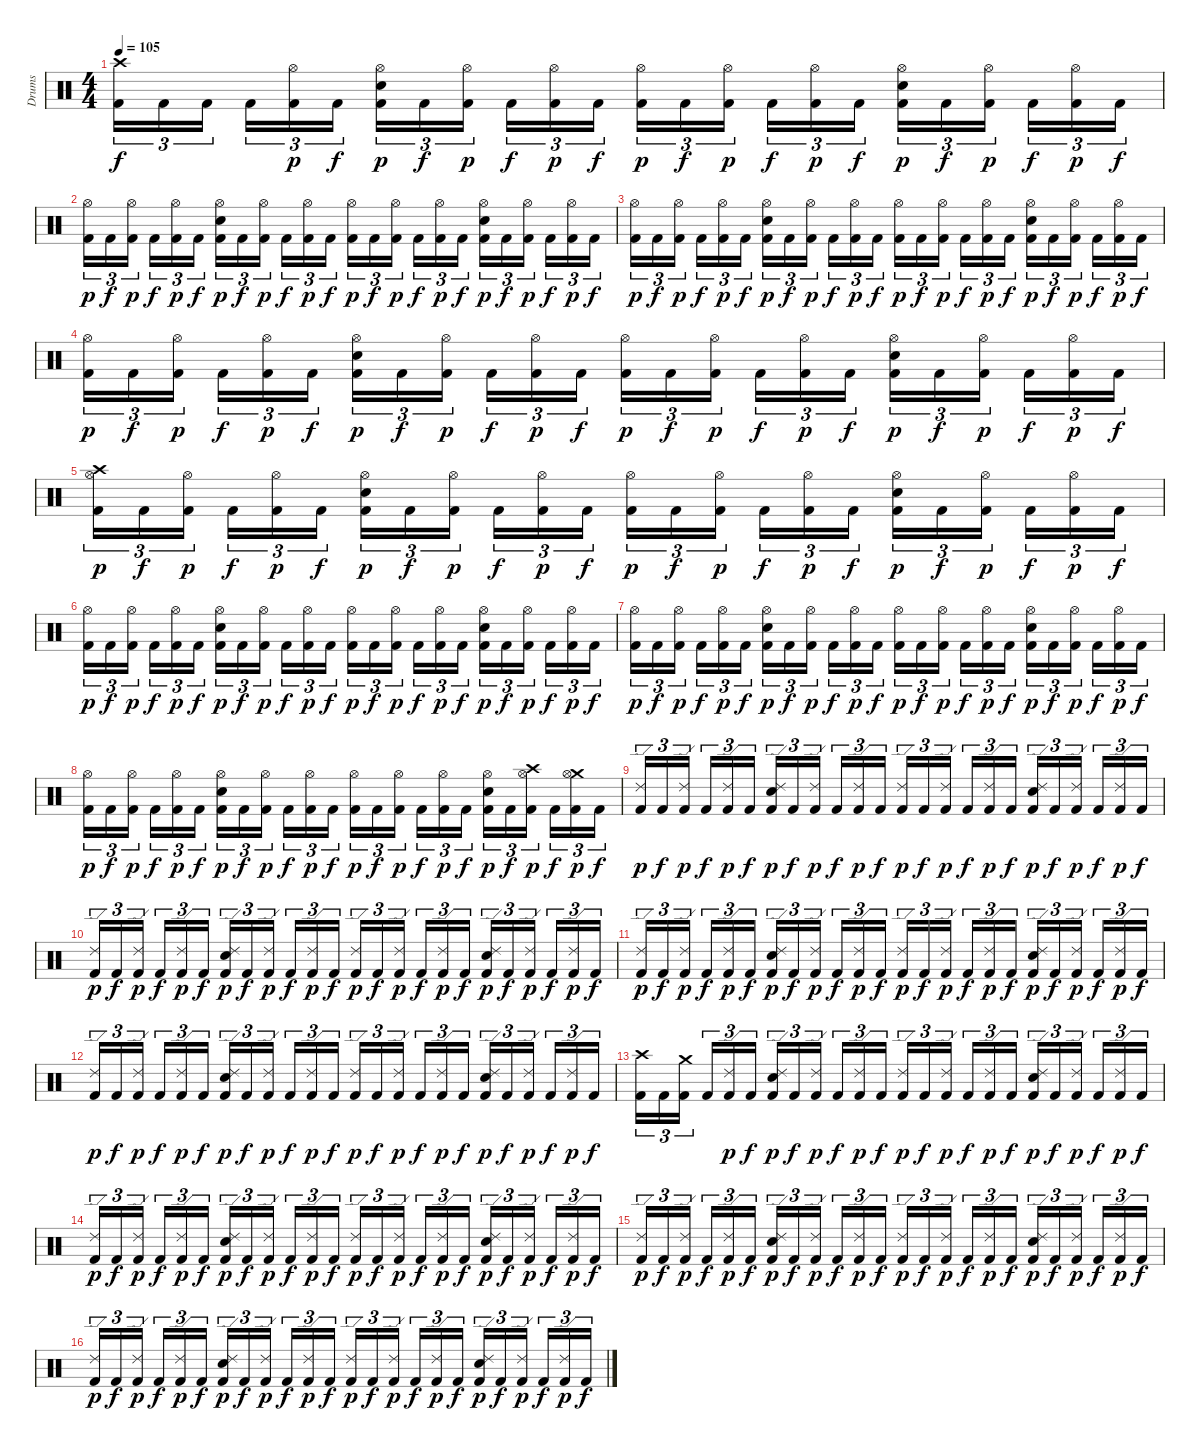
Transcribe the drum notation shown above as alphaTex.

\track ("Drums" "Drums") {instrument percussion}
\staff {score}
\articulation defaults
\ts (4 4)
\tempo 105
\clef neutral
\ks c
("Crash high (hit)" "Kick (hit) 2").16{tu (3 2) dy f} "Kick (hit) 2".16{tu (3 2)} "Kick (hit) 2".16{tu (3 2)} "Kick (hit) 2".16{tu (3 2)} ("Hi-Hat (open)" "Kick (hit) 2").16{tu (3 2) dy p} "Kick (hit) 2".16{tu (3 2) dy f} ("Hi-Hat (open)" "Electric Snare (hit)" "Kick (hit) 2").16{tu (3 2) dy p} "Kick (hit) 2".16{tu (3 2) dy f} ("Hi-Hat (open)" "Kick (hit) 2").16{tu (3 2) dy p} "Kick (hit) 2".16{tu (3 2) dy f} ("Hi-Hat (open)" "Kick (hit) 2").16{tu (3 2) dy p} "Kick (hit) 2".16{tu (3 2) dy f} ("Hi-Hat (open)" "Kick (hit) 2").16{tu (3 2) dy p} "Kick (hit) 2".16{tu (3 2) dy f} ("Hi-Hat (open)" "Kick (hit) 2").16{tu (3 2) dy p} "Kick (hit) 2".16{tu (3 2) dy f} ("Hi-Hat (open)" "Kick (hit) 2").16{tu (3 2) dy p} "Kick (hit) 2".16{tu (3 2) dy f} ("Hi-Hat (open)" "Electric Snare (hit)" "Kick (hit) 2").16{tu (3 2) dy p} "Kick (hit) 2".16{tu (3 2) dy f} ("Hi-Hat (open)" "Kick (hit) 2").16{tu (3 2) dy p} "Kick (hit) 2".16{tu (3 2) dy f} ("Hi-Hat (open)" "Kick (hit) 2").16{tu (3 2) dy p} "Kick (hit) 2".16{tu (3 2) dy f} |
("Hi-Hat (open)" "Kick (hit) 2").16{tu (3 2) dy p} "Kick (hit) 2".16{tu (3 2) dy f} ("Hi-Hat (open)" "Kick (hit) 2").16{tu (3 2) dy p} "Kick (hit) 2".16{tu (3 2) dy f} ("Hi-Hat (open)" "Kick (hit) 2").16{tu (3 2) dy p} "Kick (hit) 2".16{tu (3 2) dy f} ("Hi-Hat (open)" "Electric Snare (hit)" "Kick (hit) 2").16{tu (3 2) dy p} "Kick (hit) 2".16{tu (3 2) dy f} ("Hi-Hat (open)" "Kick (hit) 2").16{tu (3 2) dy p} "Kick (hit) 2".16{tu (3 2) dy f} ("Hi-Hat (open)" "Kick (hit) 2").16{tu (3 2) dy p} "Kick (hit) 2".16{tu (3 2) dy f} ("Hi-Hat (open)" "Kick (hit) 2").16{tu (3 2) dy p} "Kick (hit) 2".16{tu (3 2) dy f} ("Hi-Hat (open)" "Kick (hit) 2").16{tu (3 2) dy p} "Kick (hit) 2".16{tu (3 2) dy f} ("Hi-Hat (open)" "Kick (hit) 2").16{tu (3 2) dy p} "Kick (hit) 2".16{tu (3 2) dy f} ("Hi-Hat (open)" "Electric Snare (hit)" "Kick (hit) 2").16{tu (3 2) dy p} "Kick (hit) 2".16{tu (3 2) dy f} ("Hi-Hat (open)" "Kick (hit) 2").16{tu (3 2) dy p} "Kick (hit) 2".16{tu (3 2) dy f} ("Hi-Hat (open)" "Kick (hit) 2").16{tu (3 2) dy p} "Kick (hit) 2".16{tu (3 2) dy f} |
("Hi-Hat (open)" "Kick (hit) 2").16{tu (3 2) dy p} "Kick (hit) 2".16{tu (3 2) dy f} ("Hi-Hat (open)" "Kick (hit) 2").16{tu (3 2) dy p} "Kick (hit) 2".16{tu (3 2) dy f} ("Hi-Hat (open)" "Kick (hit) 2").16{tu (3 2) dy p} "Kick (hit) 2".16{tu (3 2) dy f} ("Hi-Hat (open)" "Electric Snare (hit)" "Kick (hit) 2").16{tu (3 2) dy p} "Kick (hit) 2".16{tu (3 2) dy f} ("Hi-Hat (open)" "Kick (hit) 2").16{tu (3 2) dy p} "Kick (hit) 2".16{tu (3 2) dy f} ("Hi-Hat (open)" "Kick (hit) 2").16{tu (3 2) dy p} "Kick (hit) 2".16{tu (3 2) dy f} ("Hi-Hat (open)" "Kick (hit) 2").16{tu (3 2) dy p} "Kick (hit) 2".16{tu (3 2) dy f} ("Hi-Hat (open)" "Kick (hit) 2").16{tu (3 2) dy p} "Kick (hit) 2".16{tu (3 2) dy f} ("Hi-Hat (open)" "Kick (hit) 2").16{tu (3 2) dy p} "Kick (hit) 2".16{tu (3 2) dy f} ("Hi-Hat (open)" "Electric Snare (hit)" "Kick (hit) 2").16{tu (3 2) dy p} "Kick (hit) 2".16{tu (3 2) dy f} ("Hi-Hat (open)" "Kick (hit) 2").16{tu (3 2) dy p} "Kick (hit) 2".16{tu (3 2) dy f} ("Hi-Hat (open)" "Kick (hit) 2").16{tu (3 2) dy p} "Kick (hit) 2".16{tu (3 2) dy f} |
("Hi-Hat (open)" "Kick (hit) 2").16{tu (3 2) dy p} "Kick (hit) 2".16{tu (3 2) dy f} ("Hi-Hat (open)" "Kick (hit) 2").16{tu (3 2) dy p} "Kick (hit) 2".16{tu (3 2) dy f} ("Hi-Hat (open)" "Kick (hit) 2").16{tu (3 2) dy p} "Kick (hit) 2".16{tu (3 2) dy f} ("Hi-Hat (open)" "Electric Snare (hit)" "Kick (hit) 2").16{tu (3 2) dy p} "Kick (hit) 2".16{tu (3 2) dy f} ("Hi-Hat (open)" "Kick (hit) 2").16{tu (3 2) dy p} "Kick (hit) 2".16{tu (3 2) dy f} ("Hi-Hat (open)" "Kick (hit) 2").16{tu (3 2) dy p} "Kick (hit) 2".16{tu (3 2) dy f} ("Hi-Hat (open)" "Kick (hit) 2").16{tu (3 2) dy p} "Kick (hit) 2".16{tu (3 2) dy f} ("Hi-Hat (open)" "Kick (hit) 2").16{tu (3 2) dy p} "Kick (hit) 2".16{tu (3 2) dy f} ("Hi-Hat (open)" "Kick (hit) 2").16{tu (3 2) dy p} "Kick (hit) 2".16{tu (3 2) dy f} ("Hi-Hat (open)" "Electric Snare (hit)" "Kick (hit) 2").16{tu (3 2) dy p} "Kick (hit) 2".16{tu (3 2) dy f} ("Hi-Hat (open)" "Kick (hit) 2").16{tu (3 2) dy p} "Kick (hit) 2".16{tu (3 2) dy f} ("Hi-Hat (open)" "Kick (hit) 2").16{tu (3 2) dy p} "Kick (hit) 2".16{tu (3 2) dy f} |
("Crash high (hit)" "Hi-Hat (open)" "Kick (hit) 2").16{tu (3 2) dy p} "Kick (hit) 2".16{tu (3 2) dy f} ("Hi-Hat (open)" "Kick (hit) 2").16{tu (3 2) dy p} "Kick (hit) 2".16{tu (3 2) dy f} ("Hi-Hat (open)" "Kick (hit) 2").16{tu (3 2) dy p} "Kick (hit) 2".16{tu (3 2) dy f} ("Hi-Hat (open)" "Electric Snare (hit)" "Kick (hit) 2").16{tu (3 2) dy p} "Kick (hit) 2".16{tu (3 2) dy f} ("Hi-Hat (open)" "Kick (hit) 2").16{tu (3 2) dy p} "Kick (hit) 2".16{tu (3 2) dy f} ("Hi-Hat (open)" "Kick (hit) 2").16{tu (3 2) dy p} "Kick (hit) 2".16{tu (3 2) dy f} ("Hi-Hat (open)" "Kick (hit) 2").16{tu (3 2) dy p} "Kick (hit) 2".16{tu (3 2) dy f} ("Hi-Hat (open)" "Kick (hit) 2").16{tu (3 2) dy p} "Kick (hit) 2".16{tu (3 2) dy f} ("Hi-Hat (open)" "Kick (hit) 2").16{tu (3 2) dy p} "Kick (hit) 2".16{tu (3 2) dy f} ("Hi-Hat (open)" "Electric Snare (hit)" "Kick (hit) 2").16{tu (3 2) dy p} "Kick (hit) 2".16{tu (3 2) dy f} ("Hi-Hat (open)" "Kick (hit) 2").16{tu (3 2) dy p} "Kick (hit) 2".16{tu (3 2) dy f} ("Hi-Hat (open)" "Kick (hit) 2").16{tu (3 2) dy p} "Kick (hit) 2".16{tu (3 2) dy f} |
("Hi-Hat (open)" "Kick (hit) 2").16{tu (3 2) dy p} "Kick (hit) 2".16{tu (3 2) dy f} ("Hi-Hat (open)" "Kick (hit) 2").16{tu (3 2) dy p} "Kick (hit) 2".16{tu (3 2) dy f} ("Hi-Hat (open)" "Kick (hit) 2").16{tu (3 2) dy p} "Kick (hit) 2".16{tu (3 2) dy f} ("Hi-Hat (open)" "Electric Snare (hit)" "Kick (hit) 2").16{tu (3 2) dy p} "Kick (hit) 2".16{tu (3 2) dy f} ("Hi-Hat (open)" "Kick (hit) 2").16{tu (3 2) dy p} "Kick (hit) 2".16{tu (3 2) dy f} ("Hi-Hat (open)" "Kick (hit) 2").16{tu (3 2) dy p} "Kick (hit) 2".16{tu (3 2) dy f} ("Hi-Hat (open)" "Kick (hit) 2").16{tu (3 2) dy p} "Kick (hit) 2".16{tu (3 2) dy f} ("Hi-Hat (open)" "Kick (hit) 2").16{tu (3 2) dy p} "Kick (hit) 2".16{tu (3 2) dy f} ("Hi-Hat (open)" "Kick (hit) 2").16{tu (3 2) dy p} "Kick (hit) 2".16{tu (3 2) dy f} ("Hi-Hat (open)" "Electric Snare (hit)" "Kick (hit) 2").16{tu (3 2) dy p} "Kick (hit) 2".16{tu (3 2) dy f} ("Hi-Hat (open)" "Kick (hit) 2").16{tu (3 2) dy p} "Kick (hit) 2".16{tu (3 2) dy f} ("Hi-Hat (open)" "Kick (hit) 2").16{tu (3 2) dy p} "Kick (hit) 2".16{tu (3 2) dy f} |
("Hi-Hat (open)" "Kick (hit) 2").16{tu (3 2) dy p} "Kick (hit) 2".16{tu (3 2) dy f} ("Hi-Hat (open)" "Kick (hit) 2").16{tu (3 2) dy p} "Kick (hit) 2".16{tu (3 2) dy f} ("Hi-Hat (open)" "Kick (hit) 2").16{tu (3 2) dy p} "Kick (hit) 2".16{tu (3 2) dy f} ("Hi-Hat (open)" "Electric Snare (hit)" "Kick (hit) 2").16{tu (3 2) dy p} "Kick (hit) 2".16{tu (3 2) dy f} ("Hi-Hat (open)" "Kick (hit) 2").16{tu (3 2) dy p} "Kick (hit) 2".16{tu (3 2) dy f} ("Hi-Hat (open)" "Kick (hit) 2").16{tu (3 2) dy p} "Kick (hit) 2".16{tu (3 2) dy f} ("Hi-Hat (open)" "Kick (hit) 2").16{tu (3 2) dy p} "Kick (hit) 2".16{tu (3 2) dy f} ("Hi-Hat (open)" "Kick (hit) 2").16{tu (3 2) dy p} "Kick (hit) 2".16{tu (3 2) dy f} ("Hi-Hat (open)" "Kick (hit) 2").16{tu (3 2) dy p} "Kick (hit) 2".16{tu (3 2) dy f} ("Hi-Hat (open)" "Electric Snare (hit)" "Kick (hit) 2").16{tu (3 2) dy p} "Kick (hit) 2".16{tu (3 2) dy f} ("Hi-Hat (open)" "Kick (hit) 2").16{tu (3 2) dy p} "Kick (hit) 2".16{tu (3 2) dy f} ("Hi-Hat (open)" "Kick (hit) 2").16{tu (3 2) dy p} "Kick (hit) 2".16{tu (3 2) dy f} |
("Hi-Hat (open)" "Kick (hit) 2").16{tu (3 2) dy p} "Kick (hit) 2".16{tu (3 2) dy f} ("Hi-Hat (open)" "Kick (hit) 2").16{tu (3 2) dy p} "Kick (hit) 2".16{tu (3 2) dy f} ("Hi-Hat (open)" "Kick (hit) 2").16{tu (3 2) dy p} "Kick (hit) 2".16{tu (3 2) dy f} ("Hi-Hat (open)" "Electric Snare (hit)" "Kick (hit) 2").16{tu (3 2) dy p} "Kick (hit) 2".16{tu (3 2) dy f} ("Hi-Hat (open)" "Kick (hit) 2").16{tu (3 2) dy p} "Kick (hit) 2".16{tu (3 2) dy f} ("Hi-Hat (open)" "Kick (hit) 2").16{tu (3 2) dy p} "Kick (hit) 2".16{tu (3 2) dy f} ("Hi-Hat (open)" "Kick (hit) 2").16{tu (3 2) dy p} "Kick (hit) 2".16{tu (3 2) dy f} ("Hi-Hat (open)" "Kick (hit) 2").16{tu (3 2) dy p} "Kick (hit) 2".16{tu (3 2) dy f} ("Hi-Hat (open)" "Kick (hit) 2").16{tu (3 2) dy p} "Kick (hit) 2".16{tu (3 2) dy f} ("Hi-Hat (open)" "Electric Snare (hit)" "Kick (hit) 2").16{tu (3 2) dy p} "Kick (hit) 2".16{tu (3 2) dy f} ("Crash high (hit)" "Hi-Hat (open)" "Kick (hit) 2").16{tu (3 2) dy p} "Kick (hit) 2".16{tu (3 2) dy f} ("Crash medium (hit)" "Hi-Hat (open)" "Kick (hit) 2").16{tu (3 2) dy p} "Kick (hit) 2".16{tu (3 2) dy f} |
("Ride (edge) 2" "Kick (hit) 2").16{tu (3 2) dy p} "Kick (hit) 2".16{tu (3 2) dy f} ("Ride (edge) 2" "Kick (hit) 2").16{tu (3 2) dy p} "Kick (hit) 2".16{tu (3 2) dy f} ("Ride (edge) 2" "Kick (hit) 2").16{tu (3 2) dy p} "Kick (hit) 2".16{tu (3 2) dy f} ("Ride (edge) 2" "Electric Snare (hit)" "Kick (hit) 2").16{tu (3 2) dy p} "Kick (hit) 2".16{tu (3 2) dy f} ("Ride (edge) 2" "Kick (hit) 2").16{tu (3 2) dy p} "Kick (hit) 2".16{tu (3 2) dy f} ("Ride (edge) 2" "Kick (hit) 2").16{tu (3 2) dy p} "Kick (hit) 2".16{tu (3 2) dy f} ("Ride (edge) 2" "Kick (hit) 2").16{tu (3 2) dy p} "Kick (hit) 2".16{tu (3 2) dy f} ("Ride (edge) 2" "Kick (hit) 2").16{tu (3 2) dy p} "Kick (hit) 2".16{tu (3 2) dy f} ("Ride (edge) 2" "Kick (hit) 2").16{tu (3 2) dy p} "Kick (hit) 2".16{tu (3 2) dy f} ("Ride (edge) 2" "Electric Snare (hit)" "Kick (hit) 2").16{tu (3 2) dy p} "Kick (hit) 2".16{tu (3 2) dy f} ("Ride (edge) 2" "Kick (hit) 2").16{tu (3 2) dy p} "Kick (hit) 2".16{tu (3 2) dy f} ("Ride (edge) 2" "Kick (hit) 2").16{tu (3 2) dy p} "Kick (hit) 2".16{tu (3 2) dy f} |
("Ride (edge) 2" "Kick (hit) 2").16{tu (3 2) dy p} "Kick (hit) 2".16{tu (3 2) dy f} ("Ride (edge) 2" "Kick (hit) 2").16{tu (3 2) dy p} "Kick (hit) 2".16{tu (3 2) dy f} ("Ride (edge) 2" "Kick (hit) 2").16{tu (3 2) dy p} "Kick (hit) 2".16{tu (3 2) dy f} ("Ride (edge) 2" "Electric Snare (hit)" "Kick (hit) 2").16{tu (3 2) dy p} "Kick (hit) 2".16{tu (3 2) dy f} ("Ride (edge) 2" "Kick (hit) 2").16{tu (3 2) dy p} "Kick (hit) 2".16{tu (3 2) dy f} ("Ride (edge) 2" "Kick (hit) 2").16{tu (3 2) dy p} "Kick (hit) 2".16{tu (3 2) dy f} ("Ride (edge) 2" "Kick (hit) 2").16{tu (3 2) dy p} "Kick (hit) 2".16{tu (3 2) dy f} ("Ride (edge) 2" "Kick (hit) 2").16{tu (3 2) dy p} "Kick (hit) 2".16{tu (3 2) dy f} ("Ride (edge) 2" "Kick (hit) 2").16{tu (3 2) dy p} "Kick (hit) 2".16{tu (3 2) dy f} ("Ride (edge) 2" "Electric Snare (hit)" "Kick (hit) 2").16{tu (3 2) dy p} "Kick (hit) 2".16{tu (3 2) dy f} ("Ride (edge) 2" "Kick (hit) 2").16{tu (3 2) dy p} "Kick (hit) 2".16{tu (3 2) dy f} ("Ride (edge) 2" "Kick (hit) 2").16{tu (3 2) dy p} "Kick (hit) 2".16{tu (3 2) dy f} |
("Ride (edge) 2" "Kick (hit) 2").16{tu (3 2) dy p} "Kick (hit) 2".16{tu (3 2) dy f} ("Ride (edge) 2" "Kick (hit) 2").16{tu (3 2) dy p} "Kick (hit) 2".16{tu (3 2) dy f} ("Ride (edge) 2" "Kick (hit) 2").16{tu (3 2) dy p} "Kick (hit) 2".16{tu (3 2) dy f} ("Ride (edge) 2" "Electric Snare (hit)" "Kick (hit) 2").16{tu (3 2) dy p} "Kick (hit) 2".16{tu (3 2) dy f} ("Ride (edge) 2" "Kick (hit) 2").16{tu (3 2) dy p} "Kick (hit) 2".16{tu (3 2) dy f} ("Ride (edge) 2" "Kick (hit) 2").16{tu (3 2) dy p} "Kick (hit) 2".16{tu (3 2) dy f} ("Ride (edge) 2" "Kick (hit) 2").16{tu (3 2) dy p} "Kick (hit) 2".16{tu (3 2) dy f} ("Ride (edge) 2" "Kick (hit) 2").16{tu (3 2) dy p} "Kick (hit) 2".16{tu (3 2) dy f} ("Ride (edge) 2" "Kick (hit) 2").16{tu (3 2) dy p} "Kick (hit) 2".16{tu (3 2) dy f} ("Ride (edge) 2" "Electric Snare (hit)" "Kick (hit) 2").16{tu (3 2) dy p} "Kick (hit) 2".16{tu (3 2) dy f} ("Ride (edge) 2" "Kick (hit) 2").16{tu (3 2) dy p} "Kick (hit) 2".16{tu (3 2) dy f} ("Ride (edge) 2" "Kick (hit) 2").16{tu (3 2) dy p} "Kick (hit) 2".16{tu (3 2) dy f} |
("Ride (edge) 2" "Kick (hit) 2").16{tu (3 2) dy p} "Kick (hit) 2".16{tu (3 2) dy f} ("Ride (edge) 2" "Kick (hit) 2").16{tu (3 2) dy p} "Kick (hit) 2".16{tu (3 2) dy f} ("Ride (edge) 2" "Kick (hit) 2").16{tu (3 2) dy p} "Kick (hit) 2".16{tu (3 2) dy f} ("Ride (edge) 2" "Electric Snare (hit)" "Kick (hit) 2").16{tu (3 2) dy p} "Kick (hit) 2".16{tu (3 2) dy f} ("Ride (edge) 2" "Kick (hit) 2").16{tu (3 2) dy p} "Kick (hit) 2".16{tu (3 2) dy f} ("Ride (edge) 2" "Kick (hit) 2").16{tu (3 2) dy p} "Kick (hit) 2".16{tu (3 2) dy f} ("Ride (edge) 2" "Kick (hit) 2").16{tu (3 2) dy p} "Kick (hit) 2".16{tu (3 2) dy f} ("Ride (edge) 2" "Kick (hit) 2").16{tu (3 2) dy p} "Kick (hit) 2".16{tu (3 2) dy f} ("Ride (edge) 2" "Kick (hit) 2").16{tu (3 2) dy p} "Kick (hit) 2".16{tu (3 2) dy f} ("Ride (edge) 2" "Electric Snare (hit)" "Kick (hit) 2").16{tu (3 2) dy p} "Kick (hit) 2".16{tu (3 2) dy f} ("Ride (edge) 2" "Kick (hit) 2").16{tu (3 2) dy p} "Kick (hit) 2".16{tu (3 2) dy f} ("Ride (edge) 2" "Kick (hit) 2").16{tu (3 2) dy p} "Kick (hit) 2".16{tu (3 2) dy f} |
("Crash high (hit)" "Kick (hit) 2").16{tu (3 2)} "Kick (hit) 2".16{tu (3 2)} ("Crash medium (hit)" "Kick (hit) 2").16{tu (3 2)} "Kick (hit) 2".16{tu (3 2)} ("Ride (edge) 2" "Kick (hit) 2").16{tu (3 2) dy p} "Kick (hit) 2".16{tu (3 2) dy f} ("Ride (edge) 2" "Electric Snare (hit)" "Kick (hit) 2").16{tu (3 2) dy p} "Kick (hit) 2".16{tu (3 2) dy f} ("Ride (edge) 2" "Kick (hit) 2").16{tu (3 2) dy p} "Kick (hit) 2".16{tu (3 2) dy f} ("Ride (edge) 2" "Kick (hit) 2").16{tu (3 2) dy p} "Kick (hit) 2".16{tu (3 2) dy f} ("Ride (edge) 2" "Kick (hit) 2").16{tu (3 2) dy p} "Kick (hit) 2".16{tu (3 2) dy f} ("Ride (edge) 2" "Kick (hit) 2").16{tu (3 2) dy p} "Kick (hit) 2".16{tu (3 2) dy f} ("Ride (edge) 2" "Kick (hit) 2").16{tu (3 2) dy p} "Kick (hit) 2".16{tu (3 2) dy f} ("Ride (edge) 2" "Electric Snare (hit)" "Kick (hit) 2").16{tu (3 2) dy p} "Kick (hit) 2".16{tu (3 2) dy f} ("Ride (edge) 2" "Kick (hit) 2").16{tu (3 2) dy p} "Kick (hit) 2".16{tu (3 2) dy f} ("Ride (edge) 2" "Kick (hit) 2").16{tu (3 2) dy p} "Kick (hit) 2".16{tu (3 2) dy f} |
("Ride (edge) 2" "Kick (hit) 2").16{tu (3 2) dy p} "Kick (hit) 2".16{tu (3 2) dy f} ("Ride (edge) 2" "Kick (hit) 2").16{tu (3 2) dy p} "Kick (hit) 2".16{tu (3 2) dy f} ("Ride (edge) 2" "Kick (hit) 2").16{tu (3 2) dy p} "Kick (hit) 2".16{tu (3 2) dy f} ("Ride (edge) 2" "Electric Snare (hit)" "Kick (hit) 2").16{tu (3 2) dy p} "Kick (hit) 2".16{tu (3 2) dy f} ("Ride (edge) 2" "Kick (hit) 2").16{tu (3 2) dy p} "Kick (hit) 2".16{tu (3 2) dy f} ("Ride (edge) 2" "Kick (hit) 2").16{tu (3 2) dy p} "Kick (hit) 2".16{tu (3 2) dy f} ("Ride (edge) 2" "Kick (hit) 2").16{tu (3 2) dy p} "Kick (hit) 2".16{tu (3 2) dy f} ("Ride (edge) 2" "Kick (hit) 2").16{tu (3 2) dy p} "Kick (hit) 2".16{tu (3 2) dy f} ("Ride (edge) 2" "Kick (hit) 2").16{tu (3 2) dy p} "Kick (hit) 2".16{tu (3 2) dy f} ("Ride (edge) 2" "Electric Snare (hit)" "Kick (hit) 2").16{tu (3 2) dy p} "Kick (hit) 2".16{tu (3 2) dy f} ("Ride (edge) 2" "Kick (hit) 2").16{tu (3 2) dy p} "Kick (hit) 2".16{tu (3 2) dy f} ("Ride (edge) 2" "Kick (hit) 2").16{tu (3 2) dy p} "Kick (hit) 2".16{tu (3 2) dy f} |
("Ride (edge) 2" "Kick (hit) 2").16{tu (3 2) dy p} "Kick (hit) 2".16{tu (3 2) dy f} ("Ride (edge) 2" "Kick (hit) 2").16{tu (3 2) dy p} "Kick (hit) 2".16{tu (3 2) dy f} ("Ride (edge) 2" "Kick (hit) 2").16{tu (3 2) dy p} "Kick (hit) 2".16{tu (3 2) dy f} ("Ride (edge) 2" "Electric Snare (hit)" "Kick (hit) 2").16{tu (3 2) dy p} "Kick (hit) 2".16{tu (3 2) dy f} ("Ride (edge) 2" "Kick (hit) 2").16{tu (3 2) dy p} "Kick (hit) 2".16{tu (3 2) dy f} ("Ride (edge) 2" "Kick (hit) 2").16{tu (3 2) dy p} "Kick (hit) 2".16{tu (3 2) dy f} ("Ride (edge) 2" "Kick (hit) 2").16{tu (3 2) dy p} "Kick (hit) 2".16{tu (3 2) dy f} ("Ride (edge) 2" "Kick (hit) 2").16{tu (3 2) dy p} "Kick (hit) 2".16{tu (3 2) dy f} ("Ride (edge) 2" "Kick (hit) 2").16{tu (3 2) dy p} "Kick (hit) 2".16{tu (3 2) dy f} ("Ride (edge) 2" "Electric Snare (hit)" "Kick (hit) 2").16{tu (3 2) dy p} "Kick (hit) 2".16{tu (3 2) dy f} ("Ride (edge) 2" "Kick (hit) 2").16{tu (3 2) dy p} "Kick (hit) 2".16{tu (3 2) dy f} ("Ride (edge) 2" "Kick (hit) 2").16{tu (3 2) dy p} "Kick (hit) 2".16{tu (3 2) dy f} |
("Ride (edge) 2" "Kick (hit) 2").16{tu (3 2) dy p} "Kick (hit) 2".16{tu (3 2) dy f} ("Ride (edge) 2" "Kick (hit) 2").16{tu (3 2) dy p} "Kick (hit) 2".16{tu (3 2) dy f} ("Ride (edge) 2" "Kick (hit) 2").16{tu (3 2) dy p} "Kick (hit) 2".16{tu (3 2) dy f} ("Ride (edge) 2" "Electric Snare (hit)" "Kick (hit) 2").16{tu (3 2) dy p} "Kick (hit) 2".16{tu (3 2) dy f} ("Ride (edge) 2" "Kick (hit) 2").16{tu (3 2) dy p} "Kick (hit) 2".16{tu (3 2) dy f} ("Ride (edge) 2" "Kick (hit) 2").16{tu (3 2) dy p} "Kick (hit) 2".16{tu (3 2) dy f} ("Ride (edge) 2" "Kick (hit) 2").16{tu (3 2) dy p} "Kick (hit) 2".16{tu (3 2) dy f} ("Ride (edge) 2" "Kick (hit) 2").16{tu (3 2) dy p} "Kick (hit) 2".16{tu (3 2) dy f} ("Ride (edge) 2" "Kick (hit) 2").16{tu (3 2) dy p} "Kick (hit) 2".16{tu (3 2) dy f} ("Ride (edge) 2" "Electric Snare (hit)" "Kick (hit) 2").16{tu (3 2) dy p} "Kick (hit) 2".16{tu (3 2) dy f} ("Ride (edge) 2" "Kick (hit) 2").16{tu (3 2) dy p} "Kick (hit) 2".16{tu (3 2) dy f} ("Ride (edge) 2" "Kick (hit) 2").16{tu (3 2) dy p} "Kick (hit) 2".16{tu (3 2) dy f}
